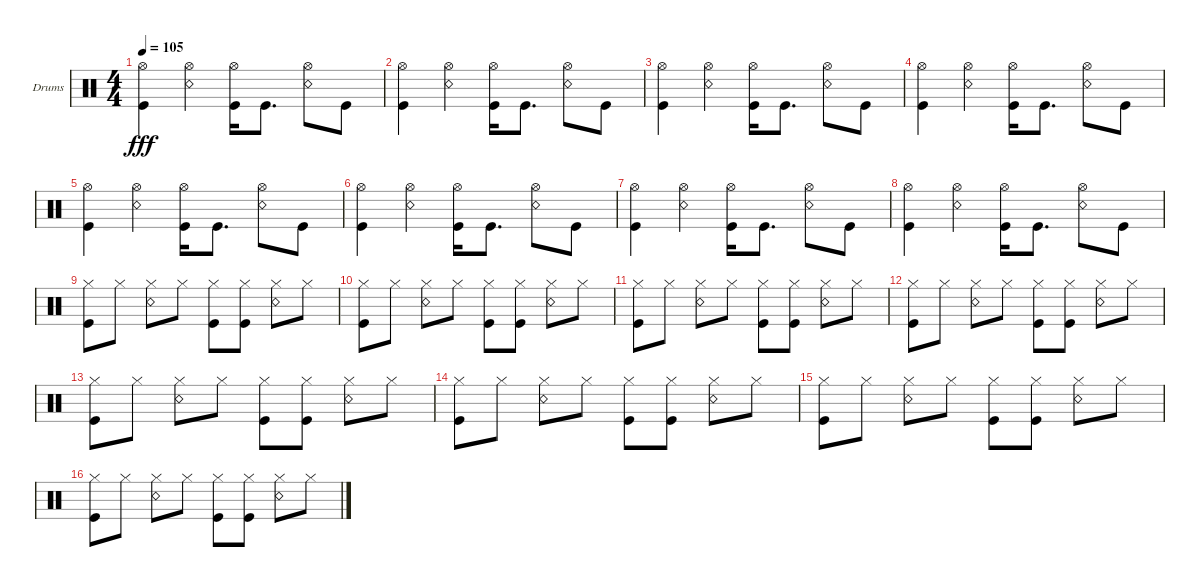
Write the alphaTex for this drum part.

\defaultSystemsLayout 4
\bracketExtendMode groupsimilarinstruments
\firstSystemTrackNameOrientation horizontal
\otherSystemsTrackNameOrientation horizontal
\track ("Drumkit" "Drums") {instrument percussion}
\staff {score}
\articulation defaults
\ts (4 4)
\tempo 105
\clef neutral
\ks c
("Hi-Hat (open)" "Kick (hit)").4{dy fff} ("Hi-Hat (open)" "Snare (rim shot)").4 ("Kick (hit)" "Hi-Hat (open)").16 "Kick (hit)".8{d} ("Snare (rim shot)" "Hi-Hat (open)").8 "Kick (hit)".8 |
("Hi-Hat (open)" "Kick (hit)").4 ("Hi-Hat (open)" "Snare (rim shot)").4 ("Kick (hit)" "Hi-Hat (open)").16 "Kick (hit)".8{d} ("Snare (rim shot)" "Hi-Hat (open)").8 "Kick (hit)".8 |
("Hi-Hat (open)" "Kick (hit)").4 ("Hi-Hat (open)" "Snare (rim shot)").4 ("Kick (hit)" "Hi-Hat (open)").16 "Kick (hit)".8{d} ("Snare (rim shot)" "Hi-Hat (open)").8 "Kick (hit)".8 |
("Hi-Hat (open)" "Kick (hit)").4 ("Hi-Hat (open)" "Snare (rim shot)").4 ("Kick (hit)" "Hi-Hat (open)").16 "Kick (hit)".8{d} ("Snare (rim shot)" "Hi-Hat (open)").8 "Kick (hit)".8 |
("Hi-Hat (open)" "Kick (hit)").4 ("Hi-Hat (open)" "Snare (rim shot)").4 ("Kick (hit)" "Hi-Hat (open)").16 "Kick (hit)".8{d} ("Snare (rim shot)" "Hi-Hat (open)").8 "Kick (hit)".8 |
("Hi-Hat (open)" "Kick (hit)").4 ("Hi-Hat (open)" "Snare (rim shot)").4 ("Kick (hit)" "Hi-Hat (open)").16 "Kick (hit)".8{d} ("Snare (rim shot)" "Hi-Hat (open)").8 "Kick (hit)".8 |
("Hi-Hat (open)" "Kick (hit)").4 ("Hi-Hat (open)" "Snare (rim shot)").4 ("Kick (hit)" "Hi-Hat (open)").16 "Kick (hit)".8{d} ("Snare (rim shot)" "Hi-Hat (open)").8 "Kick (hit)".8 |
("Hi-Hat (open)" "Kick (hit)").4 ("Hi-Hat (open)" "Snare (rim shot)").4 ("Kick (hit)" "Hi-Hat (open)").16 "Kick (hit)".8{d} ("Snare (rim shot)" "Hi-Hat (open)").8 "Kick (hit)".8 |
("Hi-Hat (closed)" "Kick (hit)").8 "Hi-Hat (closed)".8 ("Hi-Hat (closed)" "Snare (rim shot)").8 "Hi-Hat (closed)".8 ("Hi-Hat (closed)" "Kick (hit)").8 ("Hi-Hat (closed)" "Kick (hit)").8 ("Hi-Hat (closed)" "Snare (rim shot)").8 "Hi-Hat (closed)".8 |
("Hi-Hat (closed)" "Kick (hit)").8 "Hi-Hat (closed)".8 ("Hi-Hat (closed)" "Snare (rim shot)").8 "Hi-Hat (closed)".8 ("Hi-Hat (closed)" "Kick (hit)").8 ("Hi-Hat (closed)" "Kick (hit)").8 ("Hi-Hat (closed)" "Snare (rim shot)").8 "Hi-Hat (closed)".8 |
("Hi-Hat (closed)" "Kick (hit)").8 "Hi-Hat (closed)".8 ("Hi-Hat (closed)" "Snare (rim shot)").8 "Hi-Hat (closed)".8 ("Hi-Hat (closed)" "Kick (hit)").8 ("Hi-Hat (closed)" "Kick (hit)").8 ("Hi-Hat (closed)" "Snare (rim shot)").8 "Hi-Hat (closed)".8 |
("Hi-Hat (closed)" "Kick (hit)").8 "Hi-Hat (closed)".8 ("Hi-Hat (closed)" "Snare (rim shot)").8 "Hi-Hat (closed)".8 ("Hi-Hat (closed)" "Kick (hit)").8 ("Hi-Hat (closed)" "Kick (hit)").8 ("Hi-Hat (closed)" "Snare (rim shot)").8 "Hi-Hat (closed)".8 |
("Hi-Hat (closed)" "Kick (hit)").8 "Hi-Hat (closed)".8 ("Hi-Hat (closed)" "Snare (rim shot)").8 "Hi-Hat (closed)".8 ("Hi-Hat (closed)" "Kick (hit)").8 ("Hi-Hat (closed)" "Kick (hit)").8 ("Hi-Hat (closed)" "Snare (rim shot)").8 "Hi-Hat (closed)".8 |
("Hi-Hat (closed)" "Kick (hit)").8 "Hi-Hat (closed)".8 ("Hi-Hat (closed)" "Snare (rim shot)").8 "Hi-Hat (closed)".8 ("Hi-Hat (closed)" "Kick (hit)").8 ("Hi-Hat (closed)" "Kick (hit)").8 ("Hi-Hat (closed)" "Snare (rim shot)").8 "Hi-Hat (closed)".8 |
("Hi-Hat (closed)" "Kick (hit)").8 "Hi-Hat (closed)".8 ("Hi-Hat (closed)" "Snare (rim shot)").8 "Hi-Hat (closed)".8 ("Hi-Hat (closed)" "Kick (hit)").8 ("Hi-Hat (closed)" "Kick (hit)").8 ("Hi-Hat (closed)" "Snare (rim shot)").8 "Hi-Hat (closed)".8 |
("Hi-Hat (closed)" "Kick (hit)").8 "Hi-Hat (closed)".8 ("Hi-Hat (closed)" "Snare (rim shot)").8 "Hi-Hat (closed)".8 ("Hi-Hat (closed)" "Kick (hit)").8 ("Hi-Hat (closed)" "Kick (hit)").8 ("Hi-Hat (closed)" "Snare (rim shot)").8 "Hi-Hat (closed)".8
